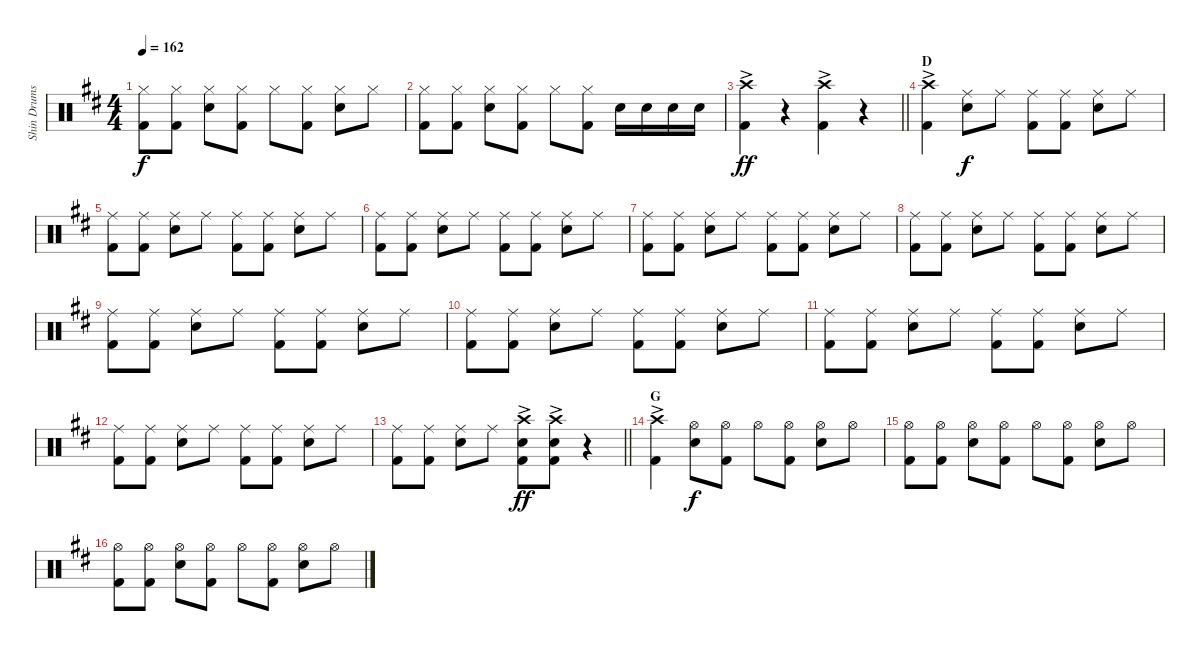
\track ("Shin Drums" "Shin Drums") {instrument percussion}
\staff {score}
\articulation defaults
\ts (4 4)
\tempo 162
\clef neutral
\ks d
("Hi-Hat (closed)" "Kick (hit) 2").8{dy f} ("Hi-Hat (closed)" "Kick (hit) 2").8 ("Hi-Hat (closed)" "Snare (hit) 2").8 ("Hi-Hat (closed)" "Kick (hit) 2").8 "Hi-Hat (closed)".8 ("Hi-Hat (closed)" "Kick (hit) 2").8 ("Hi-Hat (closed)" "Snare (hit) 2").8 "Hi-Hat (closed)".8 |
("Hi-Hat (closed)" "Kick (hit) 2").8 ("Hi-Hat (closed)" "Kick (hit) 2").8 ("Hi-Hat (closed)" "Snare (hit) 2").8 ("Hi-Hat (closed)" "Kick (hit) 2").8 "Hi-Hat (closed)".8 ("Hi-Hat (closed)" "Kick (hit) 2").8 "Snare (hit) 2".16 "Snare (hit) 2".16 "Snare (hit) 2".16 "Snare (hit) 2".16 |
\barLineRight lightlight
("Crash high (hit)"{ac} "Kick (hit) 2").4{dy ff} r.4 ("Crash high (hit)"{ac} "Kick (hit) 2").4 r.4 |
\section ("" "D")
("Crash high (hit)"{ac} "Kick (hit) 2").4 ("Ride (middle)" "Snare (hit) 2").8{dy f} "Ride (middle)".8 ("Ride (middle)" "Kick (hit) 2").8 ("Ride (middle)" "Kick (hit) 2").8 ("Ride (middle)" "Snare (hit) 2").8 "Ride (middle)".8 |
("Ride (middle)" "Kick (hit) 2").8 ("Ride (middle)" "Kick (hit) 2").8 ("Ride (middle)" "Snare (hit) 2").8 "Ride (middle)".8 ("Ride (middle)" "Kick (hit) 2").8 ("Ride (middle)" "Kick (hit) 2").8 ("Ride (middle)" "Snare (hit) 2").8 "Ride (middle)".8 |
("Ride (middle)" "Kick (hit) 2").8 ("Ride (middle)" "Kick (hit) 2").8 ("Ride (middle)" "Snare (hit) 2").8 "Ride (middle)".8 ("Ride (middle)" "Kick (hit) 2").8 ("Ride (middle)" "Kick (hit) 2").8 ("Ride (middle)" "Snare (hit) 2").8 "Ride (middle)".8 |
("Ride (middle)" "Kick (hit) 2").8 ("Ride (middle)" "Kick (hit) 2").8 ("Ride (middle)" "Snare (hit) 2").8 "Ride (middle)".8 ("Ride (middle)" "Kick (hit) 2").8 ("Ride (middle)" "Kick (hit) 2").8 ("Ride (middle)" "Snare (hit) 2").8 "Ride (middle)".8 |
("Ride (middle)" "Kick (hit) 2").8 ("Ride (middle)" "Kick (hit) 2").8 ("Ride (middle)" "Snare (hit) 2").8 "Ride (middle)".8 ("Ride (middle)" "Kick (hit) 2").8 ("Ride (middle)" "Kick (hit) 2").8 ("Ride (middle)" "Snare (hit) 2").8 "Ride (middle)".8 |
("Ride (middle)" "Kick (hit) 2").8 ("Ride (middle)" "Kick (hit) 2").8 ("Ride (middle)" "Snare (hit) 2").8 "Ride (middle)".8 ("Ride (middle)" "Kick (hit) 2").8 ("Ride (middle)" "Kick (hit) 2").8 ("Ride (middle)" "Snare (hit) 2").8 "Ride (middle)".8 |
("Ride (middle)" "Kick (hit) 2").8 ("Ride (middle)" "Kick (hit) 2").8 ("Ride (middle)" "Snare (hit) 2").8 "Ride (middle)".8 ("Ride (middle)" "Kick (hit) 2").8 ("Ride (middle)" "Kick (hit) 2").8 ("Ride (middle)" "Snare (hit) 2").8 "Ride (middle)".8 |
("Ride (middle)" "Kick (hit) 2").8 ("Ride (middle)" "Kick (hit) 2").8 ("Ride (middle)" "Snare (hit) 2").8 "Ride (middle)".8 ("Ride (middle)" "Kick (hit) 2").8 ("Ride (middle)" "Kick (hit) 2").8 ("Ride (middle)" "Snare (hit) 2").8 "Ride (middle)".8 |
("Ride (middle)" "Kick (hit) 2").8 ("Ride (middle)" "Kick (hit) 2").8 ("Ride (middle)" "Snare (hit) 2").8 "Ride (middle)".8 ("Ride (middle)" "Kick (hit) 2").8 ("Ride (middle)" "Kick (hit) 2").8 ("Ride (middle)" "Snare (hit) 2").8 "Ride (middle)".8 |
\barLineRight lightlight
("Ride (middle)" "Kick (hit) 2").8 ("Ride (middle)" "Kick (hit) 2").8 ("Ride (middle)" "Snare (hit) 2").8 "Ride (middle)".8 ("Crash high (hit)"{ac} "Snare (hit) 2" "Kick (hit) 2").8{dy ff} ("Crash high (hit)"{ac} "Snare (hit) 2" "Kick (hit) 2").8 r.4 |
\section ("" "G")
("Crash high (hit)"{ac} "Kick (hit) 2").4 ("Hi-Hat (open)" "Snare (hit) 2").8{dy f} ("Hi-Hat (open)" "Kick (hit) 2").8 "Hi-Hat (open)".8 ("Hi-Hat (open)" "Kick (hit) 2").8 ("Hi-Hat (open)" "Snare (hit) 2").8 "Hi-Hat (open)".8 |
("Hi-Hat (open)" "Kick (hit) 2").8 ("Hi-Hat (open)" "Kick (hit) 2").8 ("Hi-Hat (open)" "Snare (hit) 2").8 ("Hi-Hat (open)" "Kick (hit) 2").8 "Hi-Hat (open)".8 ("Hi-Hat (open)" "Kick (hit) 2").8 ("Hi-Hat (open)" "Snare (hit) 2").8 "Hi-Hat (open)".8 |
("Hi-Hat (open)" "Kick (hit) 2").8 ("Hi-Hat (open)" "Kick (hit) 2").8 ("Hi-Hat (open)" "Snare (hit) 2").8 ("Hi-Hat (open)" "Kick (hit) 2").8 "Hi-Hat (open)".8 ("Hi-Hat (open)" "Kick (hit) 2").8 ("Hi-Hat (open)" "Snare (hit) 2").8 "Hi-Hat (open)".8
